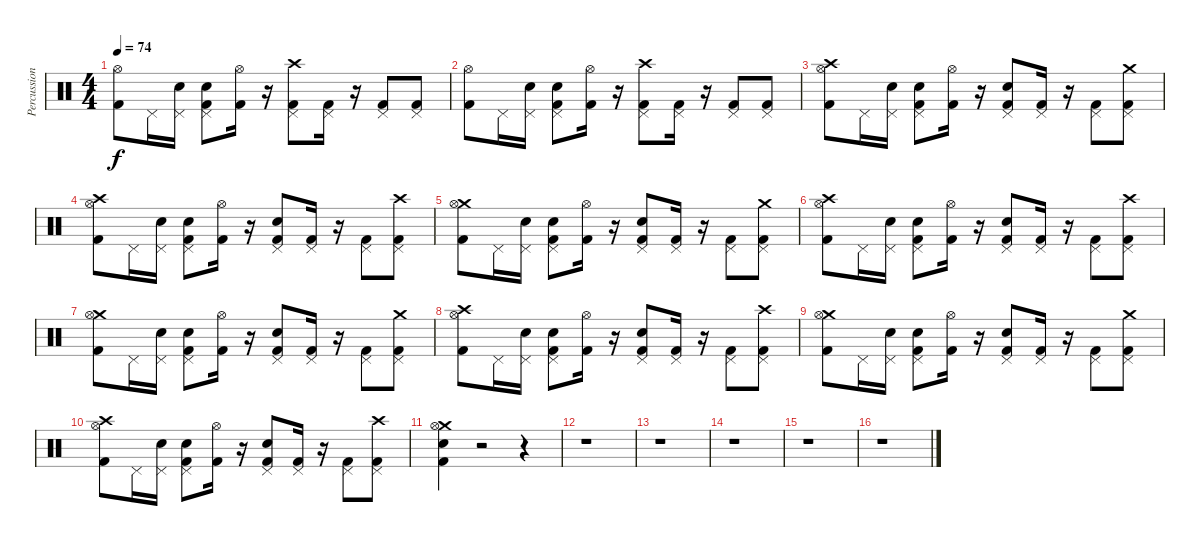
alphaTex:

\track ("Percussion" "Percussion") {instrument percussion}
\staff {score}
\articulation defaults
\ts (4 4)
\tempo 74
\clef neutral
\ks c
("Hi-Hat (open)" "Kick (hit) 2").8{dy f} "Pedal Hi-Hat (hit)".16 ("Snare (hit) 2" "Pedal Hi-Hat (hit)").16 ("Snare (hit) 2" "Pedal Hi-Hat (hit)" "Kick (hit) 2").8 ("Hi-Hat (open)" "Kick (hit) 2").16 r.16 ("Crash high (hit)" "Pedal Hi-Hat (hit)" "Kick (hit) 2").8 ("Pedal Hi-Hat (hit)" "Kick (hit) 2").16 r.16 ("Pedal Hi-Hat (hit)" "Kick (hit) 2").8 ("Pedal Hi-Hat (hit)" "Kick (hit) 2").8 |
("Hi-Hat (open)" "Kick (hit) 2").8 "Pedal Hi-Hat (hit)".16 ("Snare (hit) 2" "Pedal Hi-Hat (hit)").16 ("Snare (hit) 2" "Pedal Hi-Hat (hit)" "Kick (hit) 2").8 ("Hi-Hat (open)" "Kick (hit) 2").16 r.16 ("Crash high (hit)" "Pedal Hi-Hat (hit)" "Kick (hit) 2").8 ("Pedal Hi-Hat (hit)" "Kick (hit) 2").16 r.16 ("Pedal Hi-Hat (hit)" "Kick (hit) 2").8 ("Pedal Hi-Hat (hit)" "Kick (hit) 2").8 |
("Crash high (hit)" "Hi-Hat (open)" "Kick (hit) 2").8 "Pedal Hi-Hat (hit)".16 ("Snare (hit) 2" "Pedal Hi-Hat (hit)").16 ("Snare (hit) 2" "Pedal Hi-Hat (hit)" "Kick (hit) 2").8 ("Hi-Hat (open)" "Kick (hit) 2").16 r.16 ("Snare (hit) 2" "Pedal Hi-Hat (hit)" "Kick (hit) 2").8 ("Pedal Hi-Hat (hit)" "Kick (hit) 2").16 r.16 ("Pedal Hi-Hat (hit)" "Kick (hit) 2").8 ("Crash medium (hit)" "Pedal Hi-Hat (hit)" "Kick (hit) 2").8 |
("Crash high (hit)" "Hi-Hat (open)" "Kick (hit) 2").8 "Pedal Hi-Hat (hit)".16 ("Snare (hit) 2" "Pedal Hi-Hat (hit)").16 ("Snare (hit) 2" "Pedal Hi-Hat (hit)" "Kick (hit) 2").8 ("Hi-Hat (open)" "Kick (hit) 2").16 r.16 ("Snare (hit) 2" "Pedal Hi-Hat (hit)" "Kick (hit) 2").8 ("Pedal Hi-Hat (hit)" "Kick (hit) 2").16 r.16 ("Pedal Hi-Hat (hit)" "Kick (hit) 2").8 ("Crash high (hit)" "Pedal Hi-Hat (hit)" "Kick (hit) 2").8 |
("Crash medium (hit)" "Hi-Hat (open)" "Kick (hit) 2").8 "Pedal Hi-Hat (hit)".16 ("Snare (hit) 2" "Pedal Hi-Hat (hit)").16 ("Snare (hit) 2" "Pedal Hi-Hat (hit)" "Kick (hit) 2").8 ("Hi-Hat (open)" "Kick (hit) 2").16 r.16 ("Snare (hit) 2" "Pedal Hi-Hat (hit)" "Kick (hit) 2").8 ("Pedal Hi-Hat (hit)" "Kick (hit) 2").16 r.16 ("Pedal Hi-Hat (hit)" "Kick (hit) 2").8 ("Crash medium (hit)" "Pedal Hi-Hat (hit)" "Kick (hit) 2").8 |
("Crash high (hit)" "Hi-Hat (open)" "Kick (hit) 2").8 "Pedal Hi-Hat (hit)".16 ("Snare (hit) 2" "Pedal Hi-Hat (hit)").16 ("Snare (hit) 2" "Pedal Hi-Hat (hit)" "Kick (hit) 2").8 ("Hi-Hat (open)" "Kick (hit) 2").16 r.16 ("Snare (hit) 2" "Pedal Hi-Hat (hit)" "Kick (hit) 2").8 ("Pedal Hi-Hat (hit)" "Kick (hit) 2").16 r.16 ("Pedal Hi-Hat (hit)" "Kick (hit) 2").8 ("Crash high (hit)" "Pedal Hi-Hat (hit)" "Kick (hit) 2").8 |
("Crash medium (hit)" "Hi-Hat (open)" "Kick (hit) 2").8 "Pedal Hi-Hat (hit)".16 ("Snare (hit) 2" "Pedal Hi-Hat (hit)").16 ("Snare (hit) 2" "Pedal Hi-Hat (hit)" "Kick (hit) 2").8 ("Hi-Hat (open)" "Kick (hit) 2").16 r.16 ("Snare (hit) 2" "Pedal Hi-Hat (hit)" "Kick (hit) 2").8 ("Pedal Hi-Hat (hit)" "Kick (hit) 2").16 r.16 ("Pedal Hi-Hat (hit)" "Kick (hit) 2").8 ("Crash medium (hit)" "Pedal Hi-Hat (hit)" "Kick (hit) 2").8 |
("Crash high (hit)" "Hi-Hat (open)" "Kick (hit) 2").8 "Pedal Hi-Hat (hit)".16 ("Snare (hit) 2" "Pedal Hi-Hat (hit)").16 ("Snare (hit) 2" "Pedal Hi-Hat (hit)" "Kick (hit) 2").8 ("Hi-Hat (open)" "Kick (hit) 2").16 r.16 ("Snare (hit) 2" "Pedal Hi-Hat (hit)" "Kick (hit) 2").8 ("Pedal Hi-Hat (hit)" "Kick (hit) 2").16 r.16 ("Pedal Hi-Hat (hit)" "Kick (hit) 2").8 ("Crash high (hit)" "Pedal Hi-Hat (hit)" "Kick (hit) 2").8 |
("Crash medium (hit)" "Hi-Hat (open)" "Kick (hit) 2").8 "Pedal Hi-Hat (hit)".16 ("Snare (hit) 2" "Pedal Hi-Hat (hit)").16 ("Snare (hit) 2" "Pedal Hi-Hat (hit)" "Kick (hit) 2").8 ("Hi-Hat (open)" "Kick (hit) 2").16 r.16 ("Snare (hit) 2" "Pedal Hi-Hat (hit)" "Kick (hit) 2").8 ("Pedal Hi-Hat (hit)" "Kick (hit) 2").16 r.16 ("Pedal Hi-Hat (hit)" "Kick (hit) 2").8 ("Crash medium (hit)" "Pedal Hi-Hat (hit)" "Kick (hit) 2").8 |
("Crash high (hit)" "Hi-Hat (open)" "Kick (hit) 2").8 "Pedal Hi-Hat (hit)".16 ("Snare (hit) 2" "Pedal Hi-Hat (hit)").16 ("Snare (hit) 2" "Pedal Hi-Hat (hit)" "Kick (hit) 2").8 ("Hi-Hat (open)" "Kick (hit) 2").16 r.16 ("Snare (hit) 2" "Pedal Hi-Hat (hit)" "Kick (hit) 2").8 ("Pedal Hi-Hat (hit)" "Kick (hit) 2").16 r.16 ("Pedal Hi-Hat (hit)" "Kick (hit) 2").8 ("Crash high (hit)" "Pedal Hi-Hat (hit)" "Kick (hit) 2").8 |
("Crash medium (hit)" "Snare (hit) 2" "Hi-Hat (open)" "Kick (hit) 2").4 r.2 r.4 |
r.1 |
r.1 |
r.1 |
r.1 |
r.1
